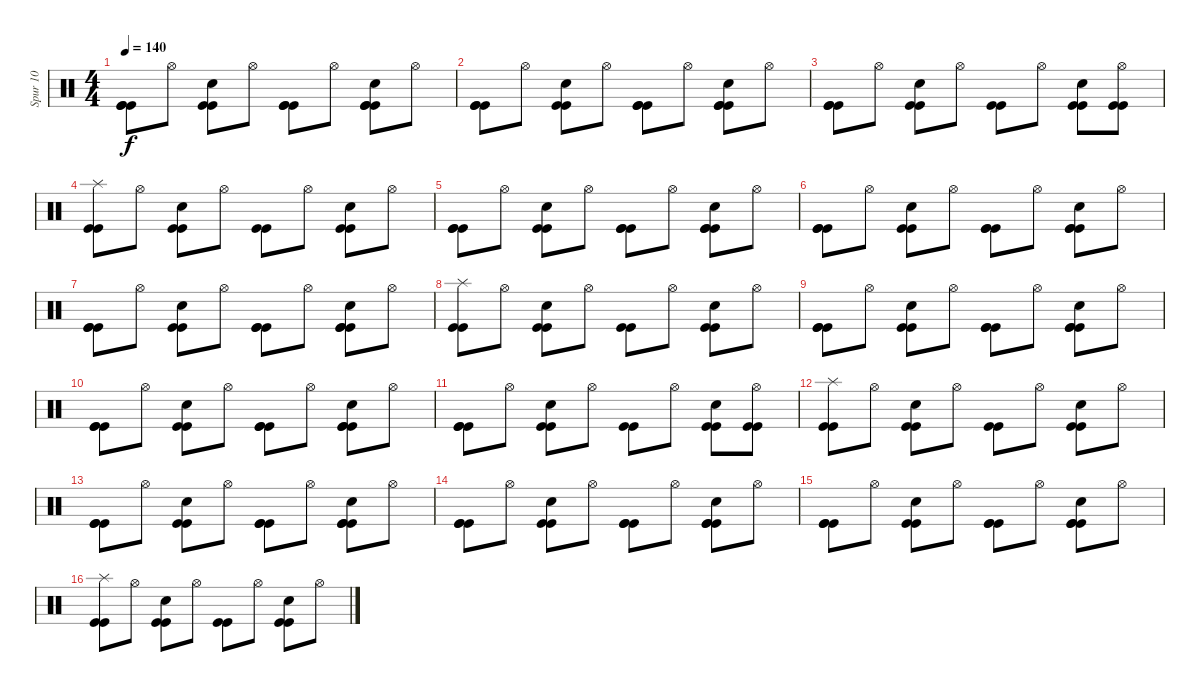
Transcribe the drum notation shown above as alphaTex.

\track ("Spur 10" "Spur 10") {instrument percussion}
\staff {score}
\articulation defaults
\ts (4 4)
\tempo 140
\clef neutral
\ks c
("Kick (hit)" "Kick (hit)" "Kick (hit)").8{dy f} "Hi-Hat (open)".8 ("Kick (hit)" "Kick (hit)" "Hand Clap (hit)").8 "Hi-Hat (open)".8 ("Kick (hit)" "Kick (hit)" "Kick (hit)").8 "Hi-Hat (open)".8 ("Kick (hit)" "Kick (hit)" "Hand Clap (hit)" "Kick (hit)").8 "Hi-Hat (open)".8 |
("Kick (hit)" "Kick (hit)" "Kick (hit)").8 "Hi-Hat (open)".8 ("Kick (hit)" "Kick (hit)" "Hand Clap (hit)").8 "Hi-Hat (open)".8 ("Kick (hit)" "Kick (hit)" "Kick (hit)").8 "Hi-Hat (open)".8 ("Kick (hit)" "Kick (hit)" "Hand Clap (hit)" "Kick (hit)").8 "Hi-Hat (open)".8 |
("Kick (hit)" "Kick (hit)" "Kick (hit)").8 "Hi-Hat (open)".8 ("Kick (hit)" "Kick (hit)" "Hand Clap (hit)").8 "Hi-Hat (open)".8 ("Kick (hit)" "Kick (hit)").8 "Hi-Hat (open)".8 ("Kick (hit)" "Hand Clap (hit)" "Kick (hit)").8 ("Kick (hit)" "Kick (hit)" "Hi-Hat (open)").8 |
("Kick (hit)" "Kick (hit)" "Splash (hit)").8 "Hi-Hat (open)".8 ("Kick (hit)" "Hand Clap (hit)" "Kick (hit)").8 "Hi-Hat (open)".8 ("Kick (hit)" "Kick (hit)").8 "Hi-Hat (open)".8 ("Kick (hit)" "Hand Clap (hit)" "Kick (hit)").8 "Hi-Hat (open)".8 |
("Kick (hit)" "Kick (hit)" "Kick (hit)").8 "Hi-Hat (open)".8 ("Kick (hit)" "Kick (hit)" "Hand Clap (hit)").8 "Hi-Hat (open)".8 ("Kick (hit)" "Kick (hit)" "Kick (hit)").8 "Hi-Hat (open)".8 ("Kick (hit)" "Kick (hit)" "Hand Clap (hit)" "Kick (hit)").8 "Hi-Hat (open)".8 |
("Kick (hit)" "Kick (hit)" "Kick (hit)").8 "Hi-Hat (open)".8 ("Kick (hit)" "Kick (hit)" "Hand Clap (hit)").8 "Hi-Hat (open)".8 ("Kick (hit)" "Kick (hit)" "Kick (hit)").8 "Hi-Hat (open)".8 ("Kick (hit)" "Kick (hit)" "Hand Clap (hit)" "Kick (hit)").8 "Hi-Hat (open)".8 |
("Kick (hit)" "Kick (hit)" "Kick (hit)").8 "Hi-Hat (open)".8 ("Kick (hit)" "Kick (hit)" "Hand Clap (hit)").8 "Hi-Hat (open)".8 ("Kick (hit)" "Kick (hit)" "Kick (hit)").8 "Hi-Hat (open)".8 ("Kick (hit)" "Kick (hit)" "Hand Clap (hit)" "Kick (hit)").8 "Hi-Hat (open)".8 |
("Kick (hit)" "Kick (hit)" "Splash (hit)").8 "Hi-Hat (open)".8 ("Kick (hit)" "Hand Clap (hit)" "Kick (hit)").8 "Hi-Hat (open)".8 ("Kick (hit)" "Kick (hit)").8 "Hi-Hat (open)".8 ("Kick (hit)" "Hand Clap (hit)" "Kick (hit)").8 "Hi-Hat (open)".8 |
("Kick (hit)" "Kick (hit)" "Kick (hit)").8 "Hi-Hat (open)".8 ("Kick (hit)" "Kick (hit)" "Hand Clap (hit)").8 "Hi-Hat (open)".8 ("Kick (hit)" "Kick (hit)" "Kick (hit)").8 "Hi-Hat (open)".8 ("Kick (hit)" "Kick (hit)" "Hand Clap (hit)" "Kick (hit)").8 "Hi-Hat (open)".8 |
("Kick (hit)" "Kick (hit)" "Kick (hit)").8 "Hi-Hat (open)".8 ("Kick (hit)" "Kick (hit)" "Hand Clap (hit)").8 "Hi-Hat (open)".8 ("Kick (hit)" "Kick (hit)" "Kick (hit)").8 "Hi-Hat (open)".8 ("Kick (hit)" "Kick (hit)" "Hand Clap (hit)" "Kick (hit)").8 "Hi-Hat (open)".8 |
("Kick (hit)" "Kick (hit)" "Kick (hit)").8 "Hi-Hat (open)".8 ("Kick (hit)" "Kick (hit)" "Hand Clap (hit)").8 "Hi-Hat (open)".8 ("Kick (hit)" "Kick (hit)").8 "Hi-Hat (open)".8 ("Kick (hit)" "Hand Clap (hit)" "Kick (hit)").8 ("Kick (hit)" "Kick (hit)" "Hi-Hat (open)").8 |
("Kick (hit)" "Kick (hit)" "Splash (hit)").8 "Hi-Hat (open)".8 ("Kick (hit)" "Hand Clap (hit)" "Kick (hit)").8 "Hi-Hat (open)".8 ("Kick (hit)" "Kick (hit)").8 "Hi-Hat (open)".8 ("Kick (hit)" "Hand Clap (hit)" "Kick (hit)").8 "Hi-Hat (open)".8 |
("Kick (hit)" "Kick (hit)" "Kick (hit)").8 "Hi-Hat (open)".8 ("Kick (hit)" "Kick (hit)" "Hand Clap (hit)").8 "Hi-Hat (open)".8 ("Kick (hit)" "Kick (hit)" "Kick (hit)").8 "Hi-Hat (open)".8 ("Kick (hit)" "Kick (hit)" "Hand Clap (hit)" "Kick (hit)").8 "Hi-Hat (open)".8 |
("Kick (hit)" "Kick (hit)" "Kick (hit)").8 "Hi-Hat (open)".8 ("Kick (hit)" "Kick (hit)" "Hand Clap (hit)").8 "Hi-Hat (open)".8 ("Kick (hit)" "Kick (hit)" "Kick (hit)").8 "Hi-Hat (open)".8 ("Kick (hit)" "Kick (hit)" "Hand Clap (hit)" "Kick (hit)").8 "Hi-Hat (open)".8 |
("Kick (hit)" "Kick (hit)" "Kick (hit)").8 "Hi-Hat (open)".8 ("Kick (hit)" "Kick (hit)" "Hand Clap (hit)").8 "Hi-Hat (open)".8 ("Kick (hit)" "Kick (hit)" "Kick (hit)").8 "Hi-Hat (open)".8 ("Kick (hit)" "Kick (hit)" "Hand Clap (hit)" "Kick (hit)").8 "Hi-Hat (open)".8 |
("Kick (hit)" "Kick (hit)" "Splash (hit)").8 "Hi-Hat (open)".8 ("Kick (hit)" "Hand Clap (hit)" "Kick (hit)").8 "Hi-Hat (open)".8 ("Kick (hit)" "Kick (hit)").8 "Hi-Hat (open)".8 ("Kick (hit)" "Hand Clap (hit)" "Kick (hit)").8 "Hi-Hat (open)".8
